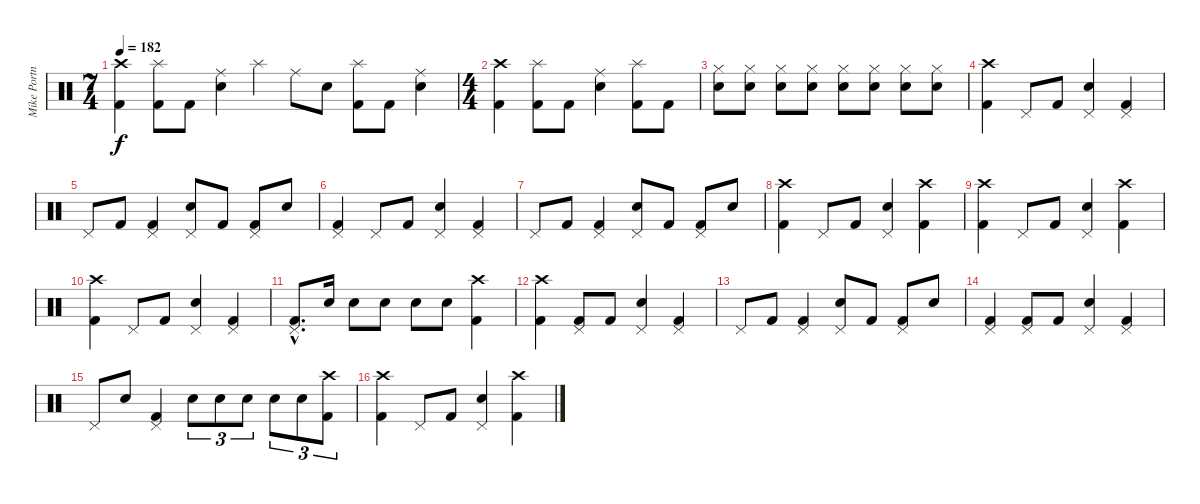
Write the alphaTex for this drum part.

\track ("Mike Portnoy" "Mike Portn") {instrument percussion}
\staff {score}
\articulation defaults
\ts (7 4)
\tempo 182
\clef neutral
\ks c
("Crash high (hit)" "Kick (hit) 2").4{dy f} ("Splash (hit)" "Kick (hit) 2").8 "Kick (hit) 2".8 ("Ride (middle)" "Electric Snare (hit)").4 "Splash (hit)".4 "Ride (middle)".8 "Electric Snare (hit)".8 ("Splash (hit)" "Kick (hit) 2").8 "Kick (hit) 2".8 ("Ride (middle)" "Electric Snare (hit)").4 |
\ts (4 4)
("Crash high (hit)" "Kick (hit) 2").4 ("Splash (hit)" "Kick (hit) 2").8 "Kick (hit) 2".8 ("Ride (middle)" "Electric Snare (hit)").4 ("Splash (hit)" "Kick (hit) 2").8 "Kick (hit) 2".8 |
("Hi-Hat (closed)" "Electric Snare (hit)").8 ("Hi-Hat (closed)" "Electric Snare (hit)").8 ("Hi-Hat (closed)" "Electric Snare (hit)").8 ("Hi-Hat (closed)" "Electric Snare (hit)").8 ("Hi-Hat (closed)" "Electric Snare (hit)").8 ("Hi-Hat (closed)" "Electric Snare (hit)").8 ("Hi-Hat (closed)" "Electric Snare (hit)").8 ("Hi-Hat (closed)" "Electric Snare (hit)").8 |
("Crash high (hit)" "Kick (hit) 2").4 "Pedal Hi-Hat (hit)".8 "Kick (hit) 2".8 ("Pedal Hi-Hat (hit)" "Electric Snare (hit)").4 ("Pedal Hi-Hat (hit)" "Kick (hit) 2").4 |
"Pedal Hi-Hat (hit)".8 "Kick (hit) 2".8 ("Pedal Hi-Hat (hit)" "Kick (hit) 2").4 ("Pedal Hi-Hat (hit)" "Electric Snare (hit)").8 "Kick (hit) 2".8 ("Pedal Hi-Hat (hit)" "Kick (hit) 2").8 "Electric Snare (hit)".8 |
("Pedal Hi-Hat (hit)" "Kick (hit) 2").4 "Pedal Hi-Hat (hit)".8 "Kick (hit) 2".8 ("Pedal Hi-Hat (hit)" "Electric Snare (hit)").4 ("Pedal Hi-Hat (hit)" "Kick (hit) 2").4 |
"Pedal Hi-Hat (hit)".8 "Kick (hit) 2".8 ("Pedal Hi-Hat (hit)" "Kick (hit) 2").4 ("Pedal Hi-Hat (hit)" "Electric Snare (hit)").8 "Kick (hit) 2".8 ("Pedal Hi-Hat (hit)" "Kick (hit) 2").8 "Electric Snare (hit)".8 |
("Crash high (hit)" "Kick (hit) 2").4 "Pedal Hi-Hat (hit)".8 "Kick (hit) 2".8 ("Pedal Hi-Hat (hit)" "Electric Snare (hit)").4 ("Crash high (hit)" "Kick (hit) 2").4 |
("Crash high (hit)" "Kick (hit) 2").4 "Pedal Hi-Hat (hit)".8 "Kick (hit) 2".8 ("Pedal Hi-Hat (hit)" "Electric Snare (hit)").4 ("Crash high (hit)" "Kick (hit) 2").4 |
("Crash high (hit)" "Kick (hit) 2").4 "Pedal Hi-Hat (hit)".8 "Kick (hit) 2".8 ("Pedal Hi-Hat (hit)" "Electric Snare (hit)").4 ("Pedal Hi-Hat (hit)" "Kick (hit) 2").4 |
("Pedal Hi-Hat (hit)"{hac} "Kick (hit) 2"{hac}).8{d} "Electric Snare (hit)".16 "Electric Snare (hit)".8 "Electric Snare (hit)".8 "Electric Snare (hit)".8 "Electric Snare (hit)".8 ("Crash high (hit)" "Kick (hit) 2").4 |
("Crash high (hit)" "Kick (hit) 2").4 ("Pedal Hi-Hat (hit)" "Kick (hit) 2").8 "Kick (hit) 2".8 ("Pedal Hi-Hat (hit)" "Electric Snare (hit)").4 ("Pedal Hi-Hat (hit)" "Kick (hit) 2").4 |
"Pedal Hi-Hat (hit)".8 "Kick (hit) 2".8 ("Pedal Hi-Hat (hit)" "Kick (hit) 2").4 ("Pedal Hi-Hat (hit)" "Electric Snare (hit)").8 "Kick (hit) 2".8 ("Pedal Hi-Hat (hit)" "Kick (hit) 2").8 "Electric Snare (hit)".8 |
("Pedal Hi-Hat (hit)" "Kick (hit) 2").4 ("Pedal Hi-Hat (hit)" "Kick (hit) 2").8 "Kick (hit) 2".8 ("Pedal Hi-Hat (hit)" "Electric Snare (hit)").4 ("Pedal Hi-Hat (hit)" "Kick (hit) 2").4 |
"Pedal Hi-Hat (hit)".8 "Electric Snare (hit)".8 ("Pedal Hi-Hat (hit)" "Kick (hit) 2").4 "Electric Snare (hit)".8{tu (3 2)} "Electric Snare (hit)".8{tu (3 2)} "Electric Snare (hit)".8{tu (3 2)} "Electric Snare (hit)".8{tu (3 2)} "Electric Snare (hit)".8{tu (3 2)} ("Crash high (hit)" "Kick (hit) 2").8{tu (3 2)} |
("Crash high (hit)" "Kick (hit) 2").4 "Pedal Hi-Hat (hit)".8 "Kick (hit) 2".8 ("Pedal Hi-Hat (hit)" "Electric Snare (hit)").4 ("Crash high (hit)" "Kick (hit) 2").4
